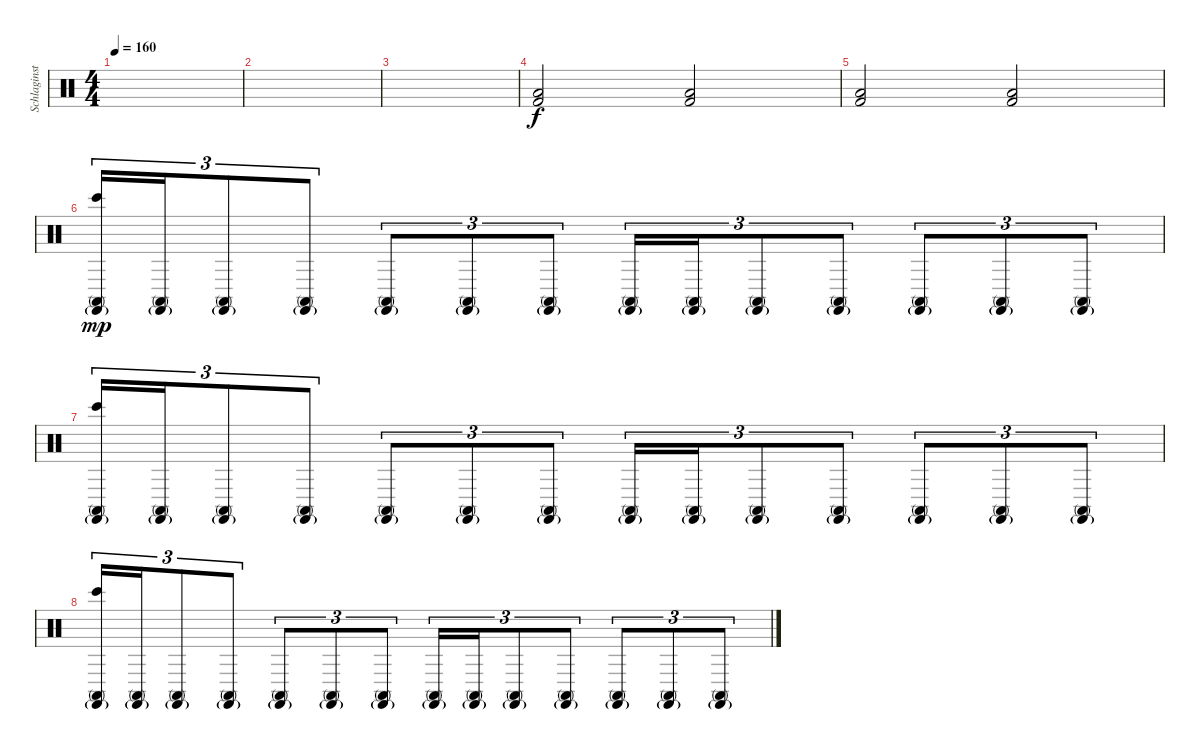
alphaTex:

\track ("Schlaginstrumente - Auswahl" "Schlaginst") {instrument percussion}
\staff {score}
\articulation defaults
\ts (4 4)
\tempo 160
\clef neutral
\ks c
|
|
|
("Low Floor Tom (hit)" "Kick (hit) 2").2 ("Low Floor Tom (hit)" "Kick (hit) 2").2 |
("Low Floor Tom (hit)" "Kick (hit) 2").2 ("Low Floor Tom (hit)" "Kick (hit) 2").2 |
("Castanets (hit)"{g} "Bongo High (hit)" "Conga high (mute)").16{tu (3 2) dy mp} ("Castanets (hit)"{g} "Conga high (mute)").16{tu (3 2)} ("Castanets (hit)"{g} "Conga high (mute)").8{tu (3 2)} ("Castanets (hit)"{g} "Conga high (mute)").8{tu (3 2)} ("Castanets (hit)"{g} "Conga high (mute)").8{tu (3 2)} ("Castanets (hit)"{g} "Conga high (mute)").8{tu (3 2)} ("Castanets (hit)"{g} "Conga high (mute)").8{tu (3 2)} ("Castanets (hit)"{g} "Conga high (mute)").16{tu (3 2)} ("Castanets (hit)"{g} "Conga high (mute)").16{tu (3 2)} ("Castanets (hit)"{g} "Conga high (mute)").8{tu (3 2)} ("Castanets (hit)"{g} "Conga high (mute)").8{tu (3 2)} ("Castanets (hit)"{g} "Conga high (mute)").8{tu (3 2)} ("Castanets (hit)"{g} "Conga high (mute)").8{tu (3 2)} ("Castanets (hit)"{g} "Conga high (mute)").8{tu (3 2)} |
("Castanets (hit)"{g} "Bongo High (hit)" "Conga high (mute)").16{tu (3 2)} ("Castanets (hit)"{g} "Conga high (mute)").16{tu (3 2)} ("Castanets (hit)"{g} "Conga high (mute)").8{tu (3 2)} ("Castanets (hit)"{g} "Conga high (mute)").8{tu (3 2)} ("Castanets (hit)"{g} "Conga high (mute)").8{tu (3 2)} ("Castanets (hit)"{g} "Conga high (mute)").8{tu (3 2)} ("Castanets (hit)"{g} "Conga high (mute)").8{tu (3 2)} ("Castanets (hit)"{g} "Conga high (mute)").16{tu (3 2)} ("Castanets (hit)"{g} "Conga high (mute)").16{tu (3 2)} ("Castanets (hit)"{g} "Conga high (mute)").8{tu (3 2)} ("Castanets (hit)"{g} "Conga high (mute)").8{tu (3 2)} ("Castanets (hit)"{g} "Conga high (mute)").8{tu (3 2)} ("Castanets (hit)"{g} "Conga high (mute)").8{tu (3 2)} ("Castanets (hit)"{g} "Conga high (mute)").8{tu (3 2)} |
("Castanets (hit)"{g} "Bongo High (hit)" "Conga high (mute)").16{tu (3 2)} ("Castanets (hit)"{g} "Conga high (mute)").16{tu (3 2)} ("Castanets (hit)"{g} "Conga high (mute)").8{tu (3 2)} ("Castanets (hit)"{g} "Conga high (mute)").8{tu (3 2)} ("Castanets (hit)"{g} "Conga high (mute)").8{tu (3 2)} ("Castanets (hit)"{g} "Conga high (mute)").8{tu (3 2)} ("Castanets (hit)"{g} "Conga high (mute)").8{tu (3 2)} ("Castanets (hit)"{g} "Conga high (mute)").16{tu (3 2)} ("Castanets (hit)"{g} "Conga high (mute)").16{tu (3 2)} ("Castanets (hit)"{g} "Conga high (mute)").8{tu (3 2)} ("Castanets (hit)"{g} "Conga high (mute)").8{tu (3 2)} ("Castanets (hit)"{g} "Conga high (mute)").8{tu (3 2)} ("Castanets (hit)"{g} "Conga high (mute)").8{tu (3 2)} ("Castanets (hit)"{g} "Conga high (mute)").8{tu (3 2)}
